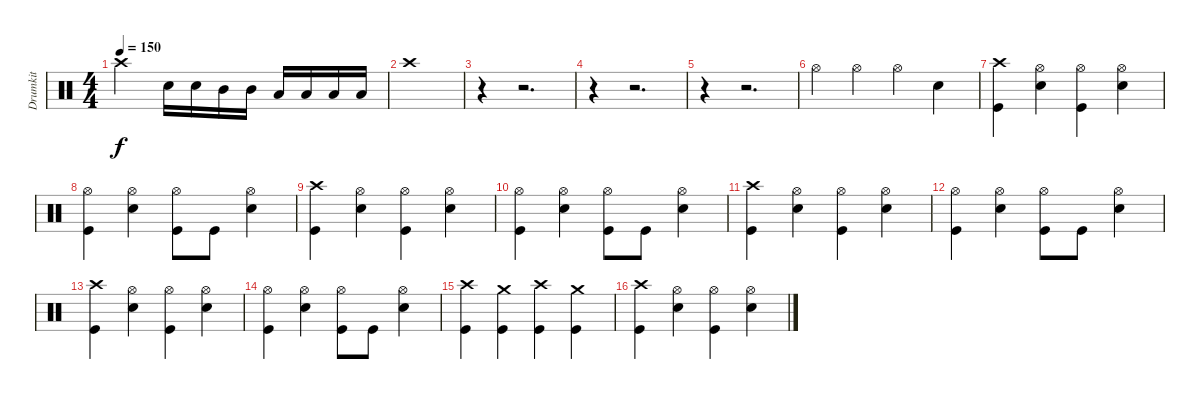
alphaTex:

\track ("Drumkit" "Drumkit") {instrument percussion}
\staff {score}
\articulation defaults
\ts (4 4)
\tempo 150
\clef neutral
\ks c "Crash high (hit)".2{dy f} "Snare (hit) 2".16 "Snare (hit) 2".16 "Mid Tom (hit)".16 "Mid Tom (hit)".16 "Low Tom (hit)".16 "Low Tom (hit)".16 "Low Floor Tom (hit)".16 "Low Floor Tom (hit)".16
|
"Crash high (hit)".1 |
r.4 r.2{d} |
r.4 r.2{d} |
r.4 r.2{d} |
"Hi-Hat (open)".4 "Hi-Hat (open)".4 "Hi-Hat (open)".4 "Snare (hit) 2".4 |
("Crash high (hit)" "Kick (hit)").4 ("Hi-Hat (open)" "Snare (hit) 2").4 ("Hi-Hat (open)" "Kick (hit)").4 ("Hi-Hat (open)" "Snare (hit) 2").4 |
("Hi-Hat (open)" "Kick (hit)").4 ("Hi-Hat (open)" "Snare (hit) 2").4 ("Hi-Hat (open)" "Kick (hit)").8 "Kick (hit)".8 ("Hi-Hat (open)" "Snare (hit) 2").4 |
("Crash high (hit)" "Kick (hit)").4 ("Hi-Hat (open)" "Snare (hit) 2").4 ("Hi-Hat (open)" "Kick (hit)").4 ("Hi-Hat (open)" "Snare (hit) 2").4 |
("Hi-Hat (open)" "Kick (hit)").4 ("Hi-Hat (open)" "Snare (hit) 2").4 ("Hi-Hat (open)" "Kick (hit)").8 "Kick (hit)".8 ("Hi-Hat (open)" "Snare (hit) 2").4 |
("Crash high (hit)" "Kick (hit)").4 ("Hi-Hat (open)" "Snare (hit) 2").4 ("Hi-Hat (open)" "Kick (hit)").4 ("Hi-Hat (open)" "Snare (hit) 2").4 |
("Hi-Hat (open)" "Kick (hit)").4 ("Hi-Hat (open)" "Snare (hit) 2").4 ("Hi-Hat (open)" "Kick (hit)").8 "Kick (hit)".8 ("Hi-Hat (open)" "Snare (hit) 2").4 |
("Crash high (hit)" "Kick (hit)").4 ("Hi-Hat (open)" "Snare (hit) 2").4 ("Hi-Hat (open)" "Kick (hit)").4 ("Hi-Hat (open)" "Snare (hit) 2").4 |
("Hi-Hat (open)" "Kick (hit)").4 ("Hi-Hat (open)" "Snare (hit) 2").4 ("Hi-Hat (open)" "Kick (hit)").8 "Kick (hit)".8 ("Hi-Hat (open)" "Snare (hit) 2").4 |
("Crash high (hit)" "Kick (hit)").4 ("Crash medium (hit)" "Kick (hit)").4 ("Crash high (hit)" "Kick (hit)").4 ("Crash medium (hit)" "Kick (hit)").4 |
("Crash high (hit)" "Kick (hit)").4 ("Hi-Hat (open)" "Snare (hit) 2").4 ("Hi-Hat (open)" "Kick (hit)").4 ("Hi-Hat (open)" "Snare (hit) 2").4
